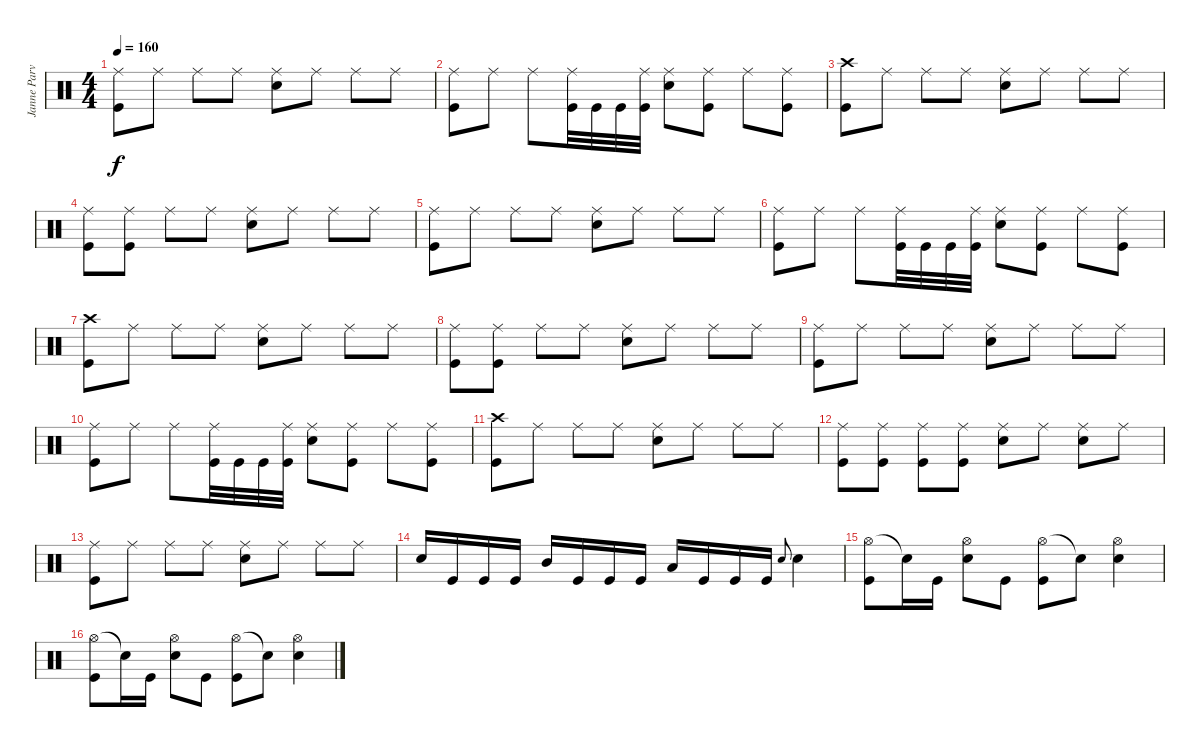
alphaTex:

\track ("Janne Parviainen" "Janne Parv") {instrument percussion}
\staff {score}
\articulation defaults
\ts (4 4)
\tempo 160
\clef neutral
\ks c
("Ride (middle)" "Kick (hit)").8{dy f} "Ride (middle)".8 "Ride (middle)".8 "Ride (middle)".8 ("Ride (middle)" "Electric Snare (hit)").8 "Ride (middle)".8 "Ride (middle)".8 "Ride (middle)".8 |
("Ride (middle)" "Kick (hit)").8 "Ride (middle)".8 "Ride (middle)".8 ("Ride (middle)" "Kick (hit)").32 "Kick (hit)".32 "Kick (hit)".32 ("Ride (middle)" "Kick (hit)").32 ("Ride (middle)" "Electric Snare (hit)").8 ("Ride (middle)" "Kick (hit)").8 "Ride (middle)".8 ("Ride (middle)" "Kick (hit)").8 |
("Crash high (hit)" "Kick (hit)").8 "Ride (middle)".8 "Ride (middle)".8 "Ride (middle)".8 ("Ride (middle)" "Electric Snare (hit)").8 "Ride (middle)".8 "Ride (middle)".8 "Ride (middle)".8 |
("Ride (middle)" "Kick (hit)").8 ("Ride (middle)" "Kick (hit)").8 "Ride (middle)".8 "Ride (middle)".8 ("Ride (middle)" "Electric Snare (hit)").8 "Ride (middle)".8 "Ride (middle)".8 "Ride (middle)".8 |
("Ride (middle)" "Kick (hit)").8 "Ride (middle)".8 "Ride (middle)".8 "Ride (middle)".8 ("Ride (middle)" "Electric Snare (hit)").8 "Ride (middle)".8 "Ride (middle)".8 "Ride (middle)".8 |
("Ride (middle)" "Kick (hit)").8 "Ride (middle)".8 "Ride (middle)".8 ("Ride (middle)" "Kick (hit)").32 "Kick (hit)".32 "Kick (hit)".32 ("Ride (middle)" "Kick (hit)").32 ("Ride (middle)" "Electric Snare (hit)").8 ("Ride (middle)" "Kick (hit)").8 "Ride (middle)".8 ("Ride (middle)" "Kick (hit)").8 |
("Crash high (hit)" "Kick (hit)").8 "Ride (middle)".8 "Ride (middle)".8 "Ride (middle)".8 ("Ride (middle)" "Electric Snare (hit)").8 "Ride (middle)".8 "Ride (middle)".8 "Ride (middle)".8 |
("Ride (middle)" "Kick (hit)").8 ("Ride (middle)" "Kick (hit)").8 "Ride (middle)".8 "Ride (middle)".8 ("Ride (middle)" "Electric Snare (hit)").8 "Ride (middle)".8 "Ride (middle)".8 "Ride (middle)".8 |
("Ride (middle)" "Kick (hit)").8 "Ride (middle)".8 "Ride (middle)".8 "Ride (middle)".8 ("Ride (middle)" "Electric Snare (hit)").8 "Ride (middle)".8 "Ride (middle)".8 "Ride (middle)".8 |
("Ride (middle)" "Kick (hit)").8 "Ride (middle)".8 "Ride (middle)".8 ("Ride (middle)" "Kick (hit)").32 "Kick (hit)".32 "Kick (hit)".32 ("Ride (middle)" "Kick (hit)").32 ("Ride (middle)" "Electric Snare (hit)").8 ("Ride (middle)" "Kick (hit)").8 "Ride (middle)".8 ("Ride (middle)" "Kick (hit)").8 |
("Crash high (hit)" "Kick (hit)").8 "Ride (middle)".8 "Ride (middle)".8 "Ride (middle)".8 ("Ride (middle)" "Electric Snare (hit)").8 "Ride (middle)".8 "Ride (middle)".8 "Ride (middle)".8 |
("Ride (middle)" "Kick (hit)").8 ("Ride (middle)" "Kick (hit)").8 ("Ride (middle)" "Kick (hit)").8 ("Ride (middle)" "Kick (hit)").8 ("Ride (middle)" "Electric Snare (hit)").8 "Ride (middle)".8 ("Ride (middle)" "Electric Snare (hit)").8 "Ride (middle)".8 |
("Ride (middle)" "Kick (hit)").8 "Ride (middle)".8 "Ride (middle)".8 "Ride (middle)".8 ("Ride (middle)" "Electric Snare (hit)").8 "Ride (middle)".8 "Ride (middle)".8 "Ride (middle)".8 |
"Electric Snare (hit)".16 "Kick (hit)".16 "Kick (hit)".16 "Kick (hit)".16 "Mid Tom (hit)".16 "Kick (hit)".16 "Kick (hit)".16 "Kick (hit)".16 "Low Tom (hit)".16 "Kick (hit)".16 "Kick (hit)".16 "Kick (hit)".16 "Electric Snare (hit)".8{gr onbeat} "Electric Snare (hit)".4 |
("Hi-Hat (open)" "Kick (hit)").8 "Snare (hit)"{t}.16 "Kick (hit)".16 ("Hi-Hat (open)" "Electric Snare (hit)").8 "Kick (hit)".8 ("Hi-Hat (open)" "Kick (hit)").8 "Snare (hit)"{t}.8 ("Hi-Hat (open)" "Electric Snare (hit)").4 |
("Hi-Hat (open)" "Kick (hit)").8 "Snare (hit)"{t}.16 "Kick (hit)".16 ("Hi-Hat (open)" "Electric Snare (hit)").8 "Kick (hit)".8 ("Hi-Hat (open)" "Kick (hit)").8 "Snare (hit)"{t}.8 ("Hi-Hat (open)" "Electric Snare (hit)").4
